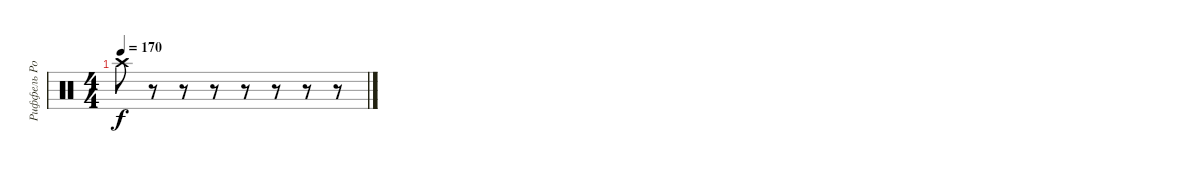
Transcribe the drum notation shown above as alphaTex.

\track ("Риффель Роман(хэты)" "Риффель Ро") {instrument percussion}
\staff {score}
\articulation defaults
\ts (4 4)
\tempo 170
\clef neutral
\ks c "Crash high (hit)".8{dy f}
r.8 r.8 r.8 r.8 r.8 r.8 r.8
